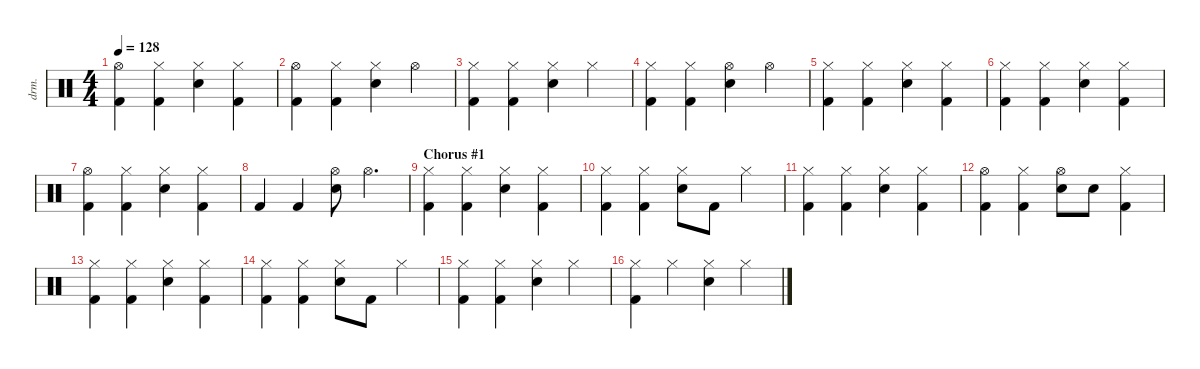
\defaultSystemsLayout 4
\hideDynamics
\bracketExtendMode nobrackets
\otherSystemsTrackNameOrientation horizontal
\track ("Percussion" "drm.") {instrument percussion}
\staff {score}
\articulation defaults
\ts (4 4)
\tempo 128
\clef neutral
\ks c
("Hi-Hat (open)" "Kick (hit) 2").4{dy f beam Down} ("Hi-Hat (closed)" "Kick (hit) 2").4{beam Down} ("Hi-Hat (closed)" "Snare (hit) 2").4{beam Down} ("Hi-Hat (closed)" "Kick (hit) 2").4{beam Down} |
("Hi-Hat (open)" "Kick (hit) 2").4{beam Down} ("Hi-Hat (closed)" "Kick (hit) 2").4{beam Down} ("Hi-Hat (closed)" "Snare (hit) 2").4{beam Down} "Hi-Hat (open)".4{beam Down} |
("Hi-Hat (closed)" "Kick (hit) 2").4{beam Down} ("Hi-Hat (closed)" "Kick (hit) 2").4{beam Down} ("Hi-Hat (closed)" "Snare (hit) 2").4{beam Down} "Hi-Hat (closed)".4{beam Down} |
("Hi-Hat (closed)" "Kick (hit) 2").4{beam Down} ("Hi-Hat (closed)" "Kick (hit) 2").4{beam Down} ("Hi-Hat (open)" "Snare (hit) 2").4{beam Down} "Hi-Hat (open)".4{beam Down} |
("Hi-Hat (closed)" "Kick (hit) 2").4{beam Down} ("Hi-Hat (closed)" "Kick (hit) 2").4{beam Down} ("Hi-Hat (closed)" "Snare (hit) 2").4{beam Down} ("Hi-Hat (closed)" "Kick (hit) 2").4{beam Down} |
("Hi-Hat (closed)" "Kick (hit) 2").4{beam Down} ("Hi-Hat (closed)" "Kick (hit) 2").4{beam Down} ("Hi-Hat (closed)" "Snare (hit) 2").4{beam Down} ("Hi-Hat (closed)" "Kick (hit) 2").4{beam Down} |
("Hi-Hat (open)" "Kick (hit) 2").4{beam Down} ("Hi-Hat (closed)" "Kick (hit) 2").4{beam Down} ("Hi-Hat (closed)" "Snare (hit) 2").4{beam Down} ("Hi-Hat (closed)" "Kick (hit) 2").4{beam Down} |
"Kick (hit) 2".4{beam Up} "Kick (hit) 2".4{beam Up} ("Hi-Hat (open)" "Snare (hit) 2").8{beam Down} "Hi-Hat (open)".4{d beam Down} |
\section ("" "Chorus #1")
("Hi-Hat (closed)" "Kick (hit) 2").4{beam Down} ("Hi-Hat (closed)" "Kick (hit) 2").4{beam Down} ("Hi-Hat (closed)" "Snare (hit) 2").4{beam Down} ("Hi-Hat (closed)" "Kick (hit) 2").4{beam Down} |
("Hi-Hat (closed)" "Kick (hit) 2").4{beam Down} ("Hi-Hat (closed)" "Kick (hit) 2").4{beam Down} ("Hi-Hat (closed)" "Snare (hit) 2").8{beam Down} "Kick (hit) 2".8{beam Down} "Hi-Hat (closed)".4{beam Down} |
("Hi-Hat (closed)" "Kick (hit) 2").4{beam Down} ("Hi-Hat (closed)" "Kick (hit) 2").4{beam Down} ("Hi-Hat (closed)" "Snare (hit) 2").4{beam Down} ("Hi-Hat (closed)" "Kick (hit) 2").4{beam Down} |
("Hi-Hat (open)" "Kick (hit) 2").4{beam Down} ("Hi-Hat (closed)" "Kick (hit) 2").4{beam Down} ("Hi-Hat (open)" "Snare (hit) 2").8{beam Down} "Snare (hit) 2".8{beam Down} ("Hi-Hat (closed)" "Kick (hit) 2").4{beam Down} |
("Hi-Hat (closed)" "Kick (hit) 2").4{beam Down} ("Hi-Hat (closed)" "Kick (hit) 2").4{beam Down} ("Hi-Hat (closed)" "Snare (hit) 2").4{beam Down} ("Hi-Hat (closed)" "Kick (hit) 2").4{beam Down} |
("Hi-Hat (closed)" "Kick (hit) 2").4{beam Down} ("Hi-Hat (closed)" "Kick (hit) 2").4{beam Down} ("Hi-Hat (closed)" "Snare (hit) 2").8{beam Down} "Kick (hit) 2".8{beam Down} "Hi-Hat (closed)".4{beam Down} |
("Hi-Hat (closed)" "Kick (hit) 2").4{beam Down} ("Hi-Hat (closed)" "Kick (hit) 2").4{beam Down} ("Hi-Hat (closed)" "Snare (hit) 2").4{beam Down} "Hi-Hat (closed)".4{beam Down} |
("Hi-Hat (closed)" "Kick (hit) 2").4{beam Down} "Hi-Hat (closed)".4{beam Down} ("Hi-Hat (closed)" "Snare (hit) 2").4{beam Down} "Hi-Hat (closed)".4{beam Down}
